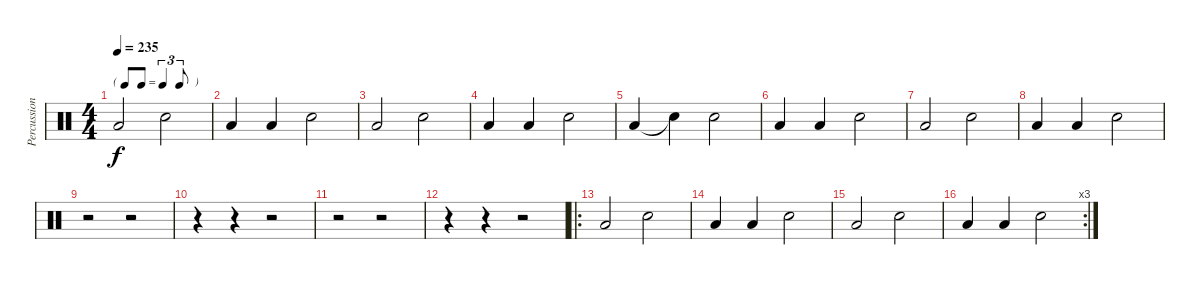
\track ("Percussions" "Percussion") {instrument percussion}
\staff {score}
\articulation defaults
\ts (4 4)
\tf triplet8th
\tempo 235
\clef neutral
\ks c "Low Tom (hit)".2{dy f} "Snare (hit) 2".2
|
"Low Tom (hit)".4 "Low Tom (hit)".4 "Snare (hit) 2".2 |
"Low Tom (hit)".2 "Snare (hit) 2".2 |
"Low Tom (hit)".4 "Low Tom (hit)".4 "Snare (hit) 2".2 |
"Low Tom (hit)".4 "Snare (hit)"{t}.4 "Snare (hit) 2".2 |
"Low Tom (hit)".4 "Low Tom (hit)".4 "Snare (hit) 2".2 |
"Low Tom (hit)".2 "Snare (hit) 2".2 |
"Low Tom (hit)".4 "Low Tom (hit)".4 "Snare (hit) 2".2 |
r.2 r.2 |
r.4 r.4 r.2 |
r.2 r.2 |
r.4 r.4 r.2 |
\ro "Low Tom (hit)".2 "Snare (hit) 2".2
|
"Low Tom (hit)".4 "Low Tom (hit)".4 "Snare (hit) 2".2 |
"Low Tom (hit)".2 "Snare (hit) 2".2 |
\rc 3 "Low Tom (hit)".4 "Low Tom (hit)".4 "Snare (hit) 2".2
